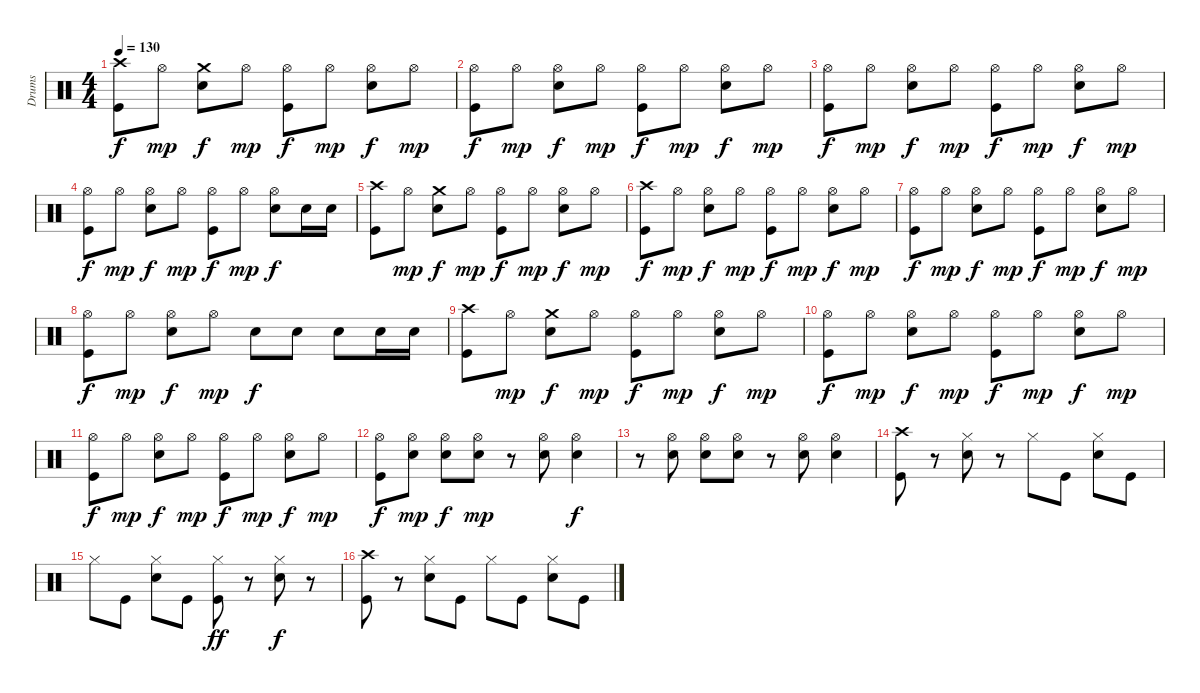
\track ("Drums" "Drums") {instrument percussion}
\staff {score}
\articulation defaults
\ts (4 4)
\tempo 130
\clef neutral
\ks c
("Crash high (hit)" "Kick (hit)").8{dy f} "Hi-Hat (open)".8{dy mp} ("Crash medium (hit)" "Snare (hit) 2").8{dy f} "Hi-Hat (open)".8{dy mp} ("Hi-Hat (open)" "Kick (hit)").8{dy f} "Hi-Hat (open)".8{dy mp} ("Hi-Hat (open)" "Snare (hit) 2").8{dy f} "Hi-Hat (open)".8{dy mp} |
("Hi-Hat (open)" "Kick (hit)").8{dy f} "Hi-Hat (open)".8{dy mp} ("Hi-Hat (open)" "Snare (hit) 2").8{dy f} "Hi-Hat (open)".8{dy mp} ("Hi-Hat (open)" "Kick (hit)").8{dy f} "Hi-Hat (open)".8{dy mp} ("Hi-Hat (open)" "Snare (hit) 2").8{dy f} "Hi-Hat (open)".8{dy mp} |
("Hi-Hat (open)" "Kick (hit)").8{dy f} "Hi-Hat (open)".8{dy mp} ("Hi-Hat (open)" "Snare (hit) 2").8{dy f} "Hi-Hat (open)".8{dy mp} ("Hi-Hat (open)" "Kick (hit)").8{dy f} "Hi-Hat (open)".8{dy mp} ("Hi-Hat (open)" "Snare (hit) 2").8{dy f} "Hi-Hat (open)".8{dy mp} |
("Hi-Hat (open)" "Kick (hit)").8{dy f} "Hi-Hat (open)".8{dy mp} ("Hi-Hat (open)" "Snare (hit) 2").8{dy f} "Hi-Hat (open)".8{dy mp} ("Hi-Hat (open)" "Kick (hit)").8{dy f} "Hi-Hat (open)".8{dy mp} ("Hi-Hat (open)" "Snare (hit) 2").8{dy f} "Snare (hit) 2".16 "Snare (hit) 2".16 |
("Crash high (hit)" "Kick (hit)").8 "Hi-Hat (open)".8{dy mp} ("Crash medium (hit)" "Snare (hit) 2").8{dy f} "Hi-Hat (open)".8{dy mp} ("Hi-Hat (open)" "Kick (hit)").8{dy f} "Hi-Hat (open)".8{dy mp} ("Hi-Hat (open)" "Snare (hit) 2").8{dy f} "Hi-Hat (open)".8{dy mp} |
("Crash high (hit)" "Kick (hit)").8{dy f} "Hi-Hat (open)".8{dy mp} ("Hi-Hat (open)" "Snare (hit) 2").8{dy f} "Hi-Hat (open)".8{dy mp} ("Hi-Hat (open)" "Kick (hit)").8{dy f} "Hi-Hat (open)".8{dy mp} ("Hi-Hat (open)" "Snare (hit) 2").8{dy f} "Hi-Hat (open)".8{dy mp} |
("Hi-Hat (open)" "Kick (hit)").8{dy f} "Hi-Hat (open)".8{dy mp} ("Hi-Hat (open)" "Snare (hit) 2").8{dy f} "Hi-Hat (open)".8{dy mp} ("Hi-Hat (open)" "Kick (hit)").8{dy f} "Hi-Hat (open)".8{dy mp} ("Hi-Hat (open)" "Snare (hit) 2").8{dy f} "Hi-Hat (open)".8{dy mp} |
("Hi-Hat (open)" "Kick (hit)").8{dy f} "Hi-Hat (open)".8{dy mp} ("Hi-Hat (open)" "Snare (hit) 2").8{dy f} "Hi-Hat (open)".8{dy mp} "Snare (hit) 2".8{dy f} "Snare (hit) 2".8 "Snare (hit) 2".8 "Snare (hit) 2".16 "Snare (hit) 2".16 |
("Crash high (hit)" "Kick (hit)").8 "Hi-Hat (open)".8{dy mp} ("Crash medium (hit)" "Snare (hit) 2").8{dy f} "Hi-Hat (open)".8{dy mp} ("Hi-Hat (open)" "Kick (hit)").8{dy f} "Hi-Hat (open)".8{dy mp} ("Hi-Hat (open)" "Snare (hit) 2").8{dy f} "Hi-Hat (open)".8{dy mp} |
("Hi-Hat (open)" "Kick (hit)").8{dy f} "Hi-Hat (open)".8{dy mp} ("Hi-Hat (open)" "Snare (hit) 2").8{dy f} "Hi-Hat (open)".8{dy mp} ("Hi-Hat (open)" "Kick (hit)").8{dy f} "Hi-Hat (open)".8{dy mp} ("Hi-Hat (open)" "Snare (hit) 2").8{dy f} "Hi-Hat (open)".8{dy mp} |
("Hi-Hat (open)" "Kick (hit)").8{dy f} "Hi-Hat (open)".8{dy mp} ("Hi-Hat (open)" "Snare (hit) 2").8{dy f} "Hi-Hat (open)".8{dy mp} ("Hi-Hat (open)" "Kick (hit)").8{dy f} "Hi-Hat (open)".8{dy mp} ("Hi-Hat (open)" "Snare (hit) 2").8{dy f} "Hi-Hat (open)".8{dy mp} |
("Hi-Hat (open)" "Kick (hit)").8{dy f} ("Hi-Hat (open)" "Snare (hit) 2").8{dy mp} ("Hi-Hat (open)" "Snare (hit) 2").8{dy f} ("Hi-Hat (open)" "Snare (hit) 2").8{dy mp} r.8 ("Hi-Hat (open)" "Snare (hit) 2").8 ("Hi-Hat (open)" "Snare (hit) 2").4{dy f} |
r.8 ("Hi-Hat (open)" "Snare (hit) 2").8 ("Hi-Hat (open)" "Snare (hit) 2").8 ("Hi-Hat (open)" "Snare (hit) 2").8 r.8 ("Hi-Hat (open)" "Snare (hit) 2").8 ("Hi-Hat (open)" "Snare (hit) 2").4 |
("Crash high (hit)" "Kick (hit)").8 r.8 ("Hi-Hat (closed)" "Snare (hit) 2").8 r.8 "Hi-Hat (closed)".8 "Kick (hit)".8 ("Hi-Hat (closed)" "Snare (hit) 2").8 "Kick (hit)".8 |
"Hi-Hat (closed)".8 "Kick (hit)".8 ("Hi-Hat (closed)" "Snare (hit) 2").8 "Kick (hit)".8 ("Hi-Hat (closed)" "Kick (hit)").8{dy ff} r.8 ("Hi-Hat (closed)" "Snare (hit) 2").8{dy f} r.8 |
("Crash high (hit)" "Kick (hit)").8 r.8 ("Hi-Hat (closed)" "Snare (hit) 2").8 "Kick (hit)".8 "Hi-Hat (closed)".8 "Kick (hit)".8 ("Hi-Hat (closed)" "Snare (hit) 2").8 "Kick (hit)".8
